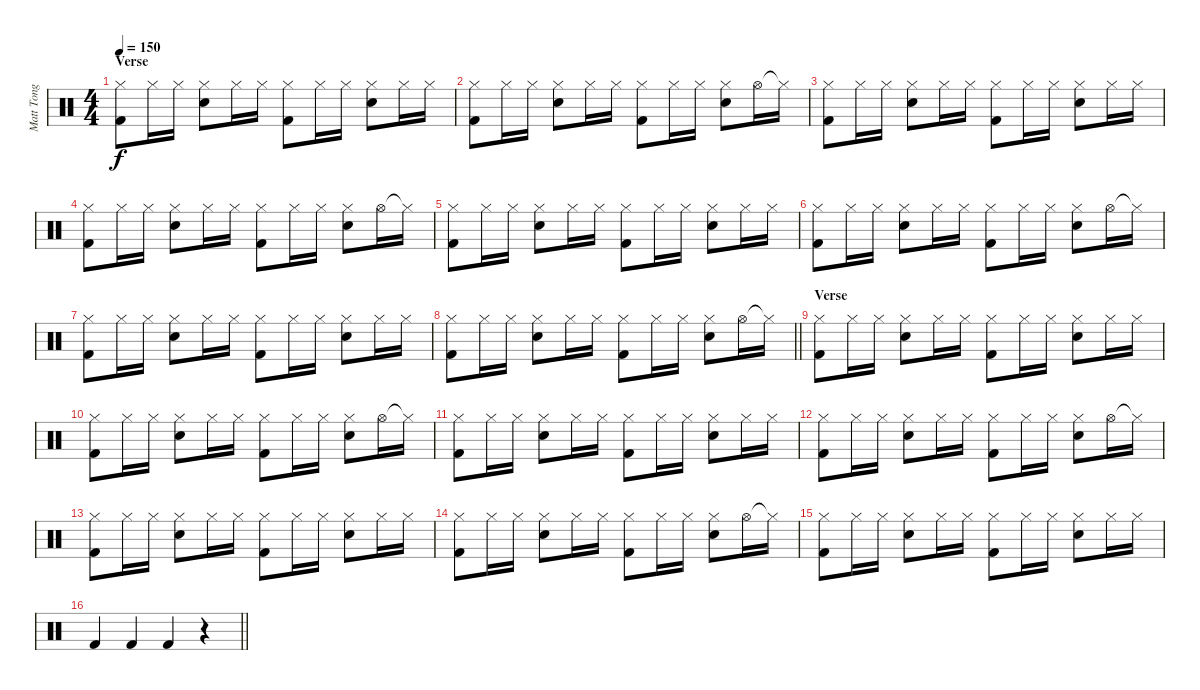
\track ("Matt Tong" "Matt Tong") {instrument percussion}
\staff {score}
\articulation defaults
\ts (4 4)
\section ("" "Verse")
\tempo 150
\clef neutral
\ks c
("Hi-Hat (closed)" "Kick (hit) 2").8{dy f} "Hi-Hat (closed)".16 "Hi-Hat (closed)".16 ("Hi-Hat (closed)" "Electric Snare (hit)").8 "Hi-Hat (closed)".16 "Hi-Hat (closed)".16 ("Hi-Hat (closed)" "Kick (hit) 2").8 "Hi-Hat (closed)".16 "Hi-Hat (closed)".16 ("Hi-Hat (closed)" "Electric Snare (hit)").8 "Hi-Hat (closed)".16 "Hi-Hat (closed)".16 |
("Hi-Hat (closed)" "Kick (hit) 2").8 "Hi-Hat (closed)".16 "Hi-Hat (closed)".16 ("Hi-Hat (closed)" "Electric Snare (hit)").8 "Hi-Hat (closed)".16 "Hi-Hat (closed)".16 ("Hi-Hat (closed)" "Kick (hit) 2").8 "Hi-Hat (closed)".16 "Hi-Hat (closed)".16 ("Hi-Hat (closed)" "Electric Snare (hit)").8 "Hi-Hat (open)".16 "Hi-Hat (closed)"{t}.16 |
("Hi-Hat (closed)" "Kick (hit) 2").8 "Hi-Hat (closed)".16 "Hi-Hat (closed)".16 ("Hi-Hat (closed)" "Electric Snare (hit)").8 "Hi-Hat (closed)".16 "Hi-Hat (closed)".16 ("Hi-Hat (closed)" "Kick (hit) 2").8 "Hi-Hat (closed)".16 "Hi-Hat (closed)".16 ("Hi-Hat (closed)" "Electric Snare (hit)").8 "Hi-Hat (closed)".16 "Hi-Hat (closed)".16 |
("Hi-Hat (closed)" "Kick (hit) 2").8 "Hi-Hat (closed)".16 "Hi-Hat (closed)".16 ("Hi-Hat (closed)" "Electric Snare (hit)").8 "Hi-Hat (closed)".16 "Hi-Hat (closed)".16 ("Hi-Hat (closed)" "Kick (hit) 2").8 "Hi-Hat (closed)".16 "Hi-Hat (closed)".16 ("Hi-Hat (closed)" "Electric Snare (hit)").8 "Hi-Hat (open)".16 "Hi-Hat (closed)"{t}.16 |
("Hi-Hat (closed)" "Kick (hit) 2").8 "Hi-Hat (closed)".16 "Hi-Hat (closed)".16 ("Hi-Hat (closed)" "Electric Snare (hit)").8 "Hi-Hat (closed)".16 "Hi-Hat (closed)".16 ("Hi-Hat (closed)" "Kick (hit) 2").8 "Hi-Hat (closed)".16 "Hi-Hat (closed)".16 ("Hi-Hat (closed)" "Electric Snare (hit)").8 "Hi-Hat (closed)".16 "Hi-Hat (closed)".16 |
("Hi-Hat (closed)" "Kick (hit) 2").8 "Hi-Hat (closed)".16 "Hi-Hat (closed)".16 ("Hi-Hat (closed)" "Electric Snare (hit)").8 "Hi-Hat (closed)".16 "Hi-Hat (closed)".16 ("Hi-Hat (closed)" "Kick (hit) 2").8 "Hi-Hat (closed)".16 "Hi-Hat (closed)".16 ("Hi-Hat (closed)" "Electric Snare (hit)").8 "Hi-Hat (open)".16 "Hi-Hat (closed)"{t}.16 |
("Hi-Hat (closed)" "Kick (hit) 2").8 "Hi-Hat (closed)".16 "Hi-Hat (closed)".16 ("Hi-Hat (closed)" "Electric Snare (hit)").8 "Hi-Hat (closed)".16 "Hi-Hat (closed)".16 ("Hi-Hat (closed)" "Kick (hit) 2").8 "Hi-Hat (closed)".16 "Hi-Hat (closed)".16 ("Hi-Hat (closed)" "Electric Snare (hit)").8 "Hi-Hat (closed)".16 "Hi-Hat (closed)".16 |
\barLineRight lightlight
("Hi-Hat (closed)" "Kick (hit) 2").8 "Hi-Hat (closed)".16 "Hi-Hat (closed)".16 ("Hi-Hat (closed)" "Electric Snare (hit)").8 "Hi-Hat (closed)".16 "Hi-Hat (closed)".16 ("Hi-Hat (closed)" "Kick (hit) 2").8 "Hi-Hat (closed)".16 "Hi-Hat (closed)".16 ("Hi-Hat (closed)" "Electric Snare (hit)").8 "Hi-Hat (open)".16 "Hi-Hat (closed)"{t}.16 |
\section ("" "Verse")
("Hi-Hat (closed)" "Kick (hit) 2").8 "Hi-Hat (closed)".16 "Hi-Hat (closed)".16 ("Hi-Hat (closed)" "Electric Snare (hit)").8 "Hi-Hat (closed)".16 "Hi-Hat (closed)".16 ("Hi-Hat (closed)" "Kick (hit) 2").8 "Hi-Hat (closed)".16 "Hi-Hat (closed)".16 ("Hi-Hat (closed)" "Electric Snare (hit)").8 "Hi-Hat (closed)".16 "Hi-Hat (closed)".16 |
("Hi-Hat (closed)" "Kick (hit) 2").8 "Hi-Hat (closed)".16 "Hi-Hat (closed)".16 ("Hi-Hat (closed)" "Electric Snare (hit)").8 "Hi-Hat (closed)".16 "Hi-Hat (closed)".16 ("Hi-Hat (closed)" "Kick (hit) 2").8 "Hi-Hat (closed)".16 "Hi-Hat (closed)".16 ("Hi-Hat (closed)" "Electric Snare (hit)").8 "Hi-Hat (open)".16 "Hi-Hat (closed)"{t}.16 |
("Hi-Hat (closed)" "Kick (hit) 2").8 "Hi-Hat (closed)".16 "Hi-Hat (closed)".16 ("Hi-Hat (closed)" "Electric Snare (hit)").8 "Hi-Hat (closed)".16 "Hi-Hat (closed)".16 ("Hi-Hat (closed)" "Kick (hit) 2").8 "Hi-Hat (closed)".16 "Hi-Hat (closed)".16 ("Hi-Hat (closed)" "Electric Snare (hit)").8 "Hi-Hat (closed)".16 "Hi-Hat (closed)".16 |
("Hi-Hat (closed)" "Kick (hit) 2").8 "Hi-Hat (closed)".16 "Hi-Hat (closed)".16 ("Hi-Hat (closed)" "Electric Snare (hit)").8 "Hi-Hat (closed)".16 "Hi-Hat (closed)".16 ("Hi-Hat (closed)" "Kick (hit) 2").8 "Hi-Hat (closed)".16 "Hi-Hat (closed)".16 ("Hi-Hat (closed)" "Electric Snare (hit)").8 "Hi-Hat (open)".16 "Hi-Hat (closed)"{t}.16 |
("Hi-Hat (closed)" "Kick (hit) 2").8 "Hi-Hat (closed)".16 "Hi-Hat (closed)".16 ("Hi-Hat (closed)" "Electric Snare (hit)").8 "Hi-Hat (closed)".16 "Hi-Hat (closed)".16 ("Hi-Hat (closed)" "Kick (hit) 2").8 "Hi-Hat (closed)".16 "Hi-Hat (closed)".16 ("Hi-Hat (closed)" "Electric Snare (hit)").8 "Hi-Hat (closed)".16 "Hi-Hat (closed)".16 |
("Hi-Hat (closed)" "Kick (hit) 2").8 "Hi-Hat (closed)".16 "Hi-Hat (closed)".16 ("Hi-Hat (closed)" "Electric Snare (hit)").8 "Hi-Hat (closed)".16 "Hi-Hat (closed)".16 ("Hi-Hat (closed)" "Kick (hit) 2").8 "Hi-Hat (closed)".16 "Hi-Hat (closed)".16 ("Hi-Hat (closed)" "Electric Snare (hit)").8 "Hi-Hat (open)".16 "Hi-Hat (closed)"{t}.16 |
("Hi-Hat (closed)" "Kick (hit) 2").8 "Hi-Hat (closed)".16 "Hi-Hat (closed)".16 ("Hi-Hat (closed)" "Electric Snare (hit)").8 "Hi-Hat (closed)".16 "Hi-Hat (closed)".16 ("Hi-Hat (closed)" "Kick (hit) 2").8 "Hi-Hat (closed)".16 "Hi-Hat (closed)".16 ("Hi-Hat (closed)" "Electric Snare (hit)").8 "Hi-Hat (closed)".16 "Hi-Hat (closed)".16 |
\barLineRight lightlight "Kick (hit) 2".4 "Kick (hit) 2".4 "Kick (hit) 2".4
r.4
